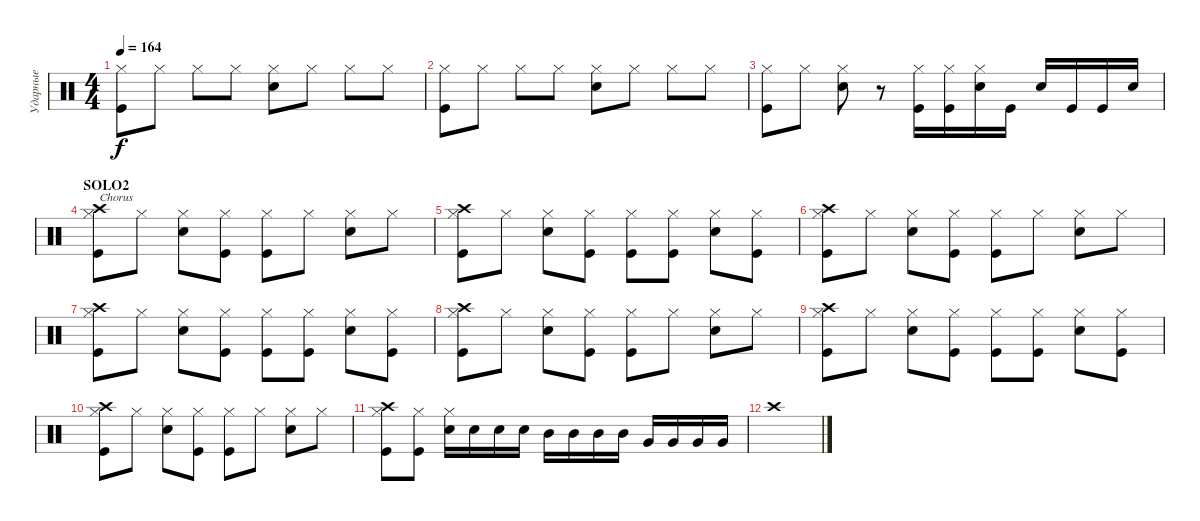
\track ("Ударные" "Ударные") {instrument percussion}
\staff {score}
\articulation defaults
\ts (4 4)
\tempo 164
\clef neutral
\ks c
("Hi-Hat (closed)" "Kick (hit)").8{dy f} "Hi-Hat (closed)".8 "Hi-Hat (closed)".8 "Hi-Hat (closed)".8 ("Hi-Hat (closed)" "Snare (hit) 2").8 "Hi-Hat (closed)".8 "Hi-Hat (closed)".8 "Hi-Hat (closed)".8 |
("Hi-Hat (closed)" "Kick (hit)").8 "Hi-Hat (closed)".8 "Hi-Hat (closed)".8 "Hi-Hat (closed)".8 ("Hi-Hat (closed)" "Snare (hit) 2").8 "Hi-Hat (closed)".8 "Hi-Hat (closed)".8 "Hi-Hat (closed)".8 |
("Hi-Hat (closed)" "Kick (hit)").8 "Hi-Hat (closed)".8 ("Hi-Hat (closed)" "Snare (hit) 2").8 r.8 ("Hi-Hat (closed)" "Kick (hit)").16 ("Hi-Hat (closed)" "Kick (hit)").16 ("Hi-Hat (closed)" "Snare (hit) 2").16 "Kick (hit)".16 "Snare (hit) 2".16 "Kick (hit)".16 "Kick (hit)".16 "Snare (hit) 2".16 |
\section ("" "SOLO2")
("Hi-Hat (closed)" "Crash high (hit)" "Kick (hit)").8{txt "Chorus"} "Hi-Hat (closed)".8 ("Hi-Hat (closed)" "Snare (hit) 2").8 ("Hi-Hat (closed)" "Kick (hit)").8 ("Hi-Hat (closed)" "Kick (hit)").8 "Hi-Hat (closed)".8 ("Hi-Hat (closed)" "Snare (hit) 2").8 "Hi-Hat (closed)".8 |
("Hi-Hat (closed)" "Crash high (hit)" "Kick (hit)").8 "Hi-Hat (closed)".8 ("Hi-Hat (closed)" "Snare (hit) 2").8 ("Hi-Hat (closed)" "Kick (hit)").8 ("Hi-Hat (closed)" "Kick (hit)").8 ("Hi-Hat (closed)" "Kick (hit)").8 ("Hi-Hat (closed)" "Snare (hit) 2").8 ("Hi-Hat (closed)" "Kick (hit)").8 |
("Hi-Hat (closed)" "Crash high (hit)" "Kick (hit)").8 "Hi-Hat (closed)".8 ("Hi-Hat (closed)" "Snare (hit) 2").8 ("Hi-Hat (closed)" "Kick (hit)").8 ("Hi-Hat (closed)" "Kick (hit)").8 "Hi-Hat (closed)".8 ("Hi-Hat (closed)" "Snare (hit) 2").8 "Hi-Hat (closed)".8 |
("Hi-Hat (closed)" "Crash high (hit)" "Kick (hit)").8 "Hi-Hat (closed)".8 ("Hi-Hat (closed)" "Snare (hit) 2").8 ("Hi-Hat (closed)" "Kick (hit)").8 ("Hi-Hat (closed)" "Kick (hit)").8 ("Hi-Hat (closed)" "Kick (hit)").8 ("Hi-Hat (closed)" "Snare (hit) 2").8 ("Hi-Hat (closed)" "Kick (hit)").8 |
("Hi-Hat (closed)" "Crash high (hit)" "Kick (hit)").8 "Hi-Hat (closed)".8 ("Hi-Hat (closed)" "Snare (hit) 2").8 ("Hi-Hat (closed)" "Kick (hit)").8 ("Hi-Hat (closed)" "Kick (hit)").8 "Hi-Hat (closed)".8 ("Hi-Hat (closed)" "Snare (hit) 2").8 "Hi-Hat (closed)".8 |
("Hi-Hat (closed)" "Crash high (hit)" "Kick (hit)").8 "Hi-Hat (closed)".8 ("Hi-Hat (closed)" "Snare (hit) 2").8 ("Hi-Hat (closed)" "Kick (hit)").8 ("Hi-Hat (closed)" "Kick (hit)").8 ("Hi-Hat (closed)" "Kick (hit)").8 ("Hi-Hat (closed)" "Snare (hit) 2").8 ("Hi-Hat (closed)" "Kick (hit)").8 |
("Hi-Hat (closed)" "Crash high (hit)" "Kick (hit)").8 "Hi-Hat (closed)".8 ("Hi-Hat (closed)" "Snare (hit) 2").8 ("Hi-Hat (closed)" "Kick (hit)").8 ("Hi-Hat (closed)" "Kick (hit)").8 "Hi-Hat (closed)".8 ("Hi-Hat (closed)" "Snare (hit) 2").8 "Hi-Hat (closed)".8 |
("Hi-Hat (closed)" "Crash high (hit)" "Kick (hit)").8 ("Hi-Hat (closed)" "Kick (hit)").8 ("Hi-Hat (closed)" "Snare (hit) 2").16 "Snare (hit) 2".16 "Snare (hit) 2".16 "Snare (hit) 2".16 "Mid Tom (hit)".16 "Mid Tom (hit)".16 "Mid Tom (hit)".16 "Mid Tom (hit)".16 "Very Low Tom (hit)".16 "Very Low Tom (hit)".16 "Very Low Tom (hit)".16 "Very Low Tom (hit)".16 |
"Crash high (hit)".1
